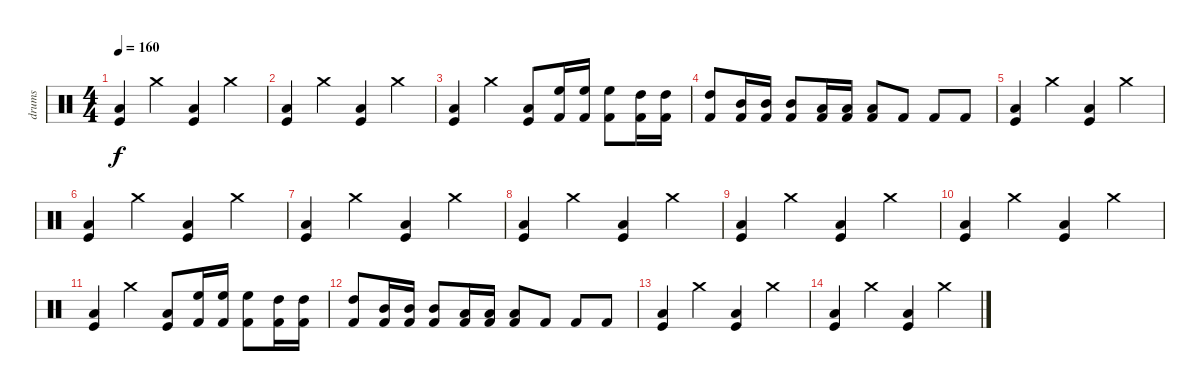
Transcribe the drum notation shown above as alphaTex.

\track ("drums" "drums") {instrument percussion}
\staff {score}
\articulation defaults
\ts (4 4)
\tempo 160
\clef neutral
\ks c
("Kick (hit)" "Low Tom (hit)").4{dy f} "Crash medium (hit)".4 ("Kick (hit)" "Low Tom (hit)").4 "Crash medium (hit)".4 |
("Kick (hit)" "Low Tom (hit)").4 "Crash medium (hit)".4 ("Kick (hit)" "Low Tom (hit)").4 "Crash medium (hit)".4 |
("Kick (hit)" "Low Tom (hit)").4 "Crash medium (hit)".4 ("Kick (hit)" "Low Tom (hit)").8 ("High Floor Tom (hit)" "Kick (hit) 2").16 ("High Floor Tom (hit)" "Kick (hit) 2").16 ("High Floor Tom (hit)" "Kick (hit) 2").8 ("High Tom (hit)" "Kick (hit) 2").16 ("High Tom (hit)" "Kick (hit) 2").16 |
("High Tom (hit)" "Kick (hit) 2").8 ("Mid Tom (hit)" "Kick (hit) 2").16 ("Mid Tom (hit)" "Kick (hit) 2").16 ("Mid Tom (hit)" "Kick (hit) 2").8 ("Low Tom (hit)" "Kick (hit) 2").16 ("Low Tom (hit)" "Kick (hit) 2").16 ("Low Tom (hit)" "Kick (hit) 2").8 "Kick (hit) 2".8 "Kick (hit) 2".8 "Kick (hit) 2".8 |
("Kick (hit)" "Low Tom (hit)").4 "Crash medium (hit)".4 ("Kick (hit)" "Low Tom (hit)").4 "Crash medium (hit)".4 |
("Kick (hit)" "Low Tom (hit)").4 "Crash medium (hit)".4 ("Kick (hit)" "Low Tom (hit)").4 "Crash medium (hit)".4 |
("Kick (hit)" "Low Tom (hit)").4 "Crash medium (hit)".4 ("Kick (hit)" "Low Tom (hit)").4 "Crash medium (hit)".4 |
("Kick (hit)" "Low Tom (hit)").4 "Crash medium (hit)".4 ("Kick (hit)" "Low Tom (hit)").4 "Crash medium (hit)".4 |
("Kick (hit)" "Low Tom (hit)").4 "Crash medium (hit)".4 ("Kick (hit)" "Low Tom (hit)").4 "Crash medium (hit)".4 |
("Kick (hit)" "Low Tom (hit)").4 "Crash medium (hit)".4 ("Kick (hit)" "Low Tom (hit)").4 "Crash medium (hit)".4 |
("Kick (hit)" "Low Tom (hit)").4 "Crash medium (hit)".4 ("Kick (hit)" "Low Tom (hit)").8 ("High Floor Tom (hit)" "Kick (hit) 2").16 ("High Floor Tom (hit)" "Kick (hit) 2").16 ("High Floor Tom (hit)" "Kick (hit) 2").8 ("High Tom (hit)" "Kick (hit) 2").16 ("High Tom (hit)" "Kick (hit) 2").16 |
("High Tom (hit)" "Kick (hit) 2").8 ("Mid Tom (hit)" "Kick (hit) 2").16 ("Mid Tom (hit)" "Kick (hit) 2").16 ("Mid Tom (hit)" "Kick (hit) 2").8 ("Low Tom (hit)" "Kick (hit) 2").16 ("Low Tom (hit)" "Kick (hit) 2").16 ("Low Tom (hit)" "Kick (hit) 2").8 "Kick (hit) 2".8 "Kick (hit) 2".8 "Kick (hit) 2".8 |
("Kick (hit)" "Low Tom (hit)").4 "Crash medium (hit)".4 ("Kick (hit)" "Low Tom (hit)").4 "Crash medium (hit)".4 |
("Kick (hit)" "Low Tom (hit)").4 "Crash medium (hit)".4 ("Kick (hit)" "Low Tom (hit)").4 "Crash medium (hit)".4
